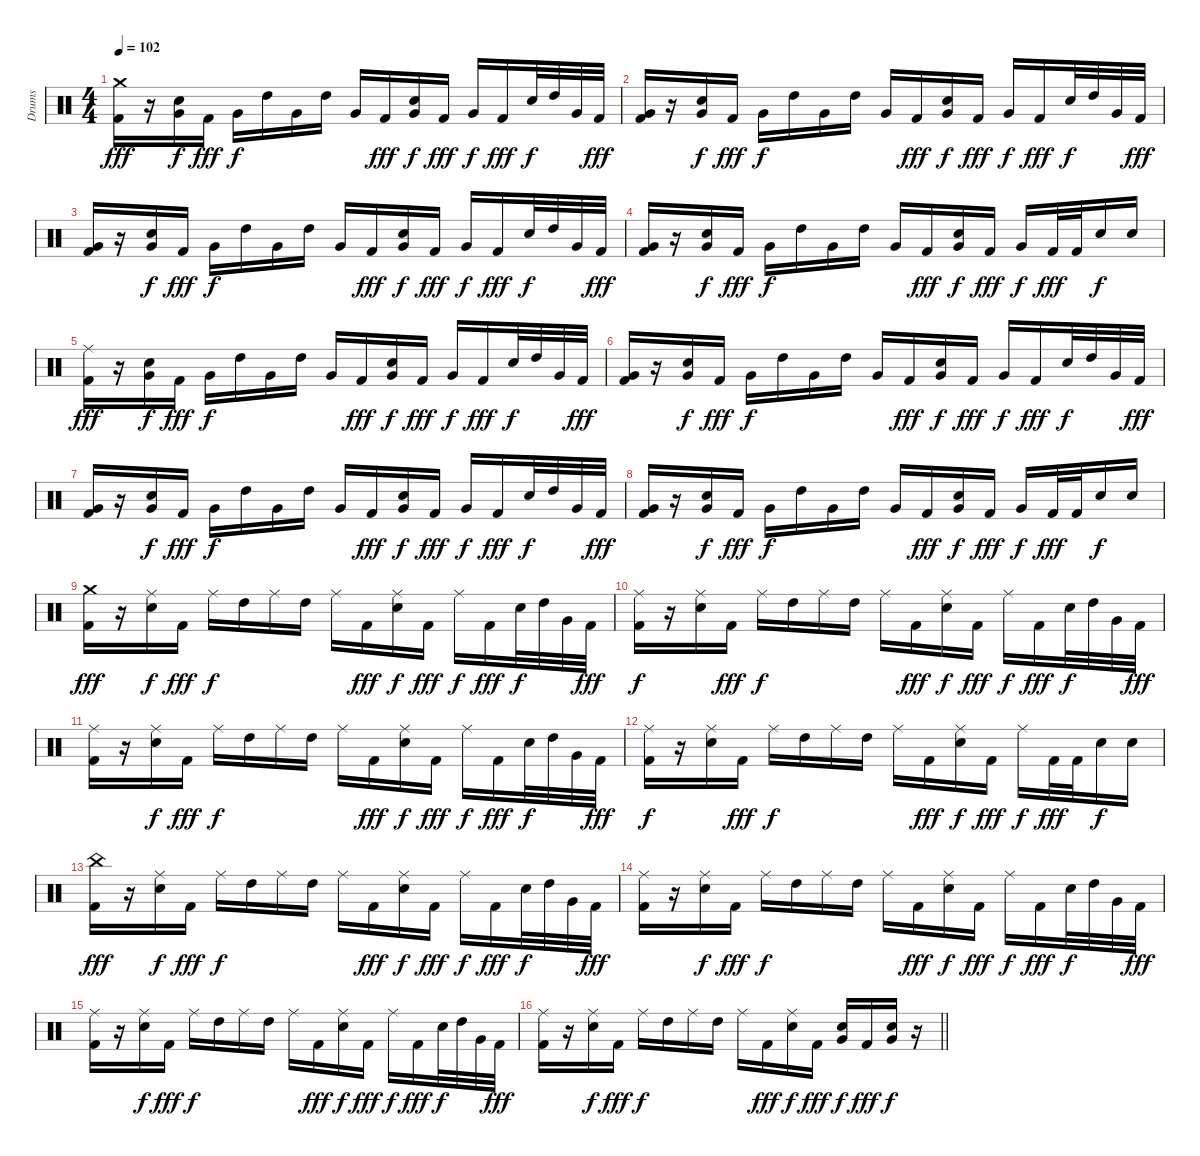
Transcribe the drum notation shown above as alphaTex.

\track ("Drums" "Drums") {instrument percussion}
\staff {score}
\articulation defaults
\ts (4 4)
\tempo 102
\clef neutral
\ks c
("Crash medium (hit)" "Kick (hit) 2").16{dy fff} r.16 ("Snare (hit) 2" "Very Low Tom (hit)").16{dy f} "Kick (hit) 2".16{dy fff} "Very Low Tom (hit)".16{dy f} "High Tom (hit)".16 "Very Low Tom (hit)".16 "High Tom (hit)".16 "Very Low Tom (hit)".16 "Kick (hit) 2".16{dy fff} ("Snare (hit) 2" "Very Low Tom (hit)").16{dy f} "Kick (hit) 2".16{dy fff} "Very Low Tom (hit)".16{dy f} "Kick (hit) 2".16{dy fff} "Snare (hit) 2".32{dy f} "High Tom (hit)".32 "Very Low Tom (hit)".32 "Kick (hit) 2".32{dy fff} |
("Very Low Tom (hit)" "Kick (hit) 2").16 r.16 ("Snare (hit) 2" "Very Low Tom (hit)").16{dy f} "Kick (hit) 2".16{dy fff} "Very Low Tom (hit)".16{dy f} "High Tom (hit)".16 "Very Low Tom (hit)".16 "High Tom (hit)".16 "Very Low Tom (hit)".16 "Kick (hit) 2".16{dy fff} ("Snare (hit) 2" "Very Low Tom (hit)").16{dy f} "Kick (hit) 2".16{dy fff} "Very Low Tom (hit)".16{dy f} "Kick (hit) 2".16{dy fff} "Snare (hit) 2".32{dy f} "High Tom (hit)".32 "Very Low Tom (hit)".32 "Kick (hit) 2".32{dy fff} |
("Very Low Tom (hit)" "Kick (hit) 2").16 r.16 ("Snare (hit) 2" "Very Low Tom (hit)").16{dy f} "Kick (hit) 2".16{dy fff} "Very Low Tom (hit)".16{dy f} "High Tom (hit)".16 "Very Low Tom (hit)".16 "High Tom (hit)".16 "Very Low Tom (hit)".16 "Kick (hit) 2".16{dy fff} ("Snare (hit) 2" "Very Low Tom (hit)").16{dy f} "Kick (hit) 2".16{dy fff} "Very Low Tom (hit)".16{dy f} "Kick (hit) 2".16{dy fff} "Snare (hit) 2".32{dy f} "High Tom (hit)".32 "Very Low Tom (hit)".32 "Kick (hit) 2".32{dy fff} |
("Very Low Tom (hit)" "Kick (hit) 2").16 r.16 ("Snare (hit) 2" "Very Low Tom (hit)").16{dy f} "Kick (hit) 2".16{dy fff} "Very Low Tom (hit)".16{dy f} "High Tom (hit)".16 "Very Low Tom (hit)".16 "High Tom (hit)".16 "Very Low Tom (hit)".16 "Kick (hit) 2".16{dy fff} ("Snare (hit) 2" "Very Low Tom (hit)").16{dy f} "Kick (hit) 2".16{dy fff} "Very Low Tom (hit)".16{dy f} "Kick (hit) 2".32{dy fff} "Kick (hit) 2".32 "Snare (hit) 2".16{dy f} "Snare (hit) 2".16 |
("Ride (middle)" "Kick (hit) 2").16{dy fff} r.16 ("Snare (hit) 2" "Very Low Tom (hit)").16{dy f} "Kick (hit) 2".16{dy fff} "Very Low Tom (hit)".16{dy f} "High Tom (hit)".16 "Very Low Tom (hit)".16 "High Tom (hit)".16 "Very Low Tom (hit)".16 "Kick (hit) 2".16{dy fff} ("Snare (hit) 2" "Very Low Tom (hit)").16{dy f} "Kick (hit) 2".16{dy fff} "Very Low Tom (hit)".16{dy f} "Kick (hit) 2".16{dy fff} "Snare (hit) 2".32{dy f} "High Tom (hit)".32 "Very Low Tom (hit)".32 "Kick (hit) 2".32{dy fff} |
("Very Low Tom (hit)" "Kick (hit) 2").16 r.16 ("Snare (hit) 2" "Very Low Tom (hit)").16{dy f} "Kick (hit) 2".16{dy fff} "Very Low Tom (hit)".16{dy f} "High Tom (hit)".16 "Very Low Tom (hit)".16 "High Tom (hit)".16 "Very Low Tom (hit)".16 "Kick (hit) 2".16{dy fff} ("Snare (hit) 2" "Very Low Tom (hit)").16{dy f} "Kick (hit) 2".16{dy fff} "Very Low Tom (hit)".16{dy f} "Kick (hit) 2".16{dy fff} "Snare (hit) 2".32{dy f} "High Tom (hit)".32 "Very Low Tom (hit)".32 "Kick (hit) 2".32{dy fff} |
("Very Low Tom (hit)" "Kick (hit) 2").16 r.16 ("Snare (hit) 2" "Very Low Tom (hit)").16{dy f} "Kick (hit) 2".16{dy fff} "Very Low Tom (hit)".16{dy f} "High Tom (hit)".16 "Very Low Tom (hit)".16 "High Tom (hit)".16 "Very Low Tom (hit)".16 "Kick (hit) 2".16{dy fff} ("Snare (hit) 2" "Very Low Tom (hit)").16{dy f} "Kick (hit) 2".16{dy fff} "Very Low Tom (hit)".16{dy f} "Kick (hit) 2".16{dy fff} "Snare (hit) 2".32{dy f} "High Tom (hit)".32 "Very Low Tom (hit)".32 "Kick (hit) 2".32{dy fff} |
("Very Low Tom (hit)" "Kick (hit) 2").16 r.16 ("Snare (hit) 2" "Very Low Tom (hit)").16{dy f} "Kick (hit) 2".16{dy fff} "Very Low Tom (hit)".16{dy f} "High Tom (hit)".16 "Very Low Tom (hit)".16 "High Tom (hit)".16 "Very Low Tom (hit)".16 "Kick (hit) 2".16{dy fff} ("Snare (hit) 2" "Very Low Tom (hit)").16{dy f} "Kick (hit) 2".16{dy fff} "Very Low Tom (hit)".16{dy f} "Kick (hit) 2".32{dy fff} "Kick (hit) 2".32 "Snare (hit) 2".16{dy f} "Snare (hit) 2".16 |
("Crash medium (hit)" "Kick (hit) 2").16{dy fff} r.16 ("Ride (middle)" "Snare (hit) 2").16{dy f} "Kick (hit) 2".16{dy fff} "Ride (middle)".16{dy f} "High Tom (hit)".16 "Ride (middle)".16 "High Tom (hit)".16 "Ride (middle)".16 "Kick (hit) 2".16{dy fff} ("Ride (middle)" "Snare (hit) 2").16{dy f} "Kick (hit) 2".16{dy fff} "Ride (middle)".16{dy f} "Kick (hit) 2".16{dy fff} "Snare (hit) 2".32{dy f} "High Tom (hit)".32 "Very Low Tom (hit)".32 "Kick (hit) 2".32{dy fff} |
("Ride (middle)" "Kick (hit) 2").16{dy f} r.16 ("Ride (middle)" "Snare (hit) 2").16 "Kick (hit) 2".16{dy fff} "Ride (middle)".16{dy f} "High Tom (hit)".16 "Ride (middle)".16 "High Tom (hit)".16 "Ride (middle)".16 "Kick (hit) 2".16{dy fff} ("Ride (middle)" "Snare (hit) 2").16{dy f} "Kick (hit) 2".16{dy fff} "Ride (middle)".16{dy f} "Kick (hit) 2".16{dy fff} "Snare (hit) 2".32{dy f} "High Tom (hit)".32 "Very Low Tom (hit)".32 "Kick (hit) 2".32{dy fff} |
("Ride (middle)" "Kick (hit) 2").16 r.16 ("Ride (middle)" "Snare (hit) 2").16{dy f} "Kick (hit) 2".16{dy fff} "Ride (middle)".16{dy f} "High Tom (hit)".16 "Ride (middle)".16 "High Tom (hit)".16 "Ride (middle)".16 "Kick (hit) 2".16{dy fff} ("Ride (middle)" "Snare (hit) 2").16{dy f} "Kick (hit) 2".16{dy fff} "Ride (middle)".16{dy f} "Kick (hit) 2".16{dy fff} "Snare (hit) 2".32{dy f} "High Tom (hit)".32 "Very Low Tom (hit)".32 "Kick (hit) 2".32{dy fff} |
("Ride (middle)" "Kick (hit) 2").16{dy f} r.16 ("Ride (middle)" "Snare (hit) 2").16 "Kick (hit) 2".16{dy fff} "Ride (middle)".16{dy f} "High Tom (hit)".16 "Ride (middle)".16 "High Tom (hit)".16 "Ride (middle)".16 "Kick (hit) 2".16{dy fff} ("Ride (middle)" "Snare (hit) 2").16{dy f} "Kick (hit) 2".16{dy fff} "Ride (middle)".16{dy f} "Kick (hit) 2".32{dy fff} "Kick (hit) 2".32 "Snare (hit) 2".16{dy f} "Snare (hit) 2".16 |
("China (hit)" "Kick (hit) 2").16{dy fff} r.16 ("Ride (middle)" "Snare (hit) 2").16{dy f} "Kick (hit) 2".16{dy fff} "Ride (middle)".16{dy f} "High Tom (hit)".16 "Ride (middle)".16 "High Tom (hit)".16 "Ride (middle)".16 "Kick (hit) 2".16{dy fff} ("Ride (middle)" "Snare (hit) 2").16{dy f} "Kick (hit) 2".16{dy fff} "Ride (middle)".16{dy f} "Kick (hit) 2".16{dy fff} "Snare (hit) 2".32{dy f} "High Tom (hit)".32 "Very Low Tom (hit)".32 "Kick (hit) 2".32{dy fff} |
("Ride (middle)" "Kick (hit) 2").16 r.16 ("Ride (middle)" "Snare (hit) 2").16{dy f} "Kick (hit) 2".16{dy fff} "Ride (middle)".16{dy f} "High Tom (hit)".16 "Ride (middle)".16 "High Tom (hit)".16 "Ride (middle)".16 "Kick (hit) 2".16{dy fff} ("Ride (middle)" "Snare (hit) 2").16{dy f} "Kick (hit) 2".16{dy fff} "Ride (middle)".16{dy f} "Kick (hit) 2".16{dy fff} "Snare (hit) 2".32{dy f} "High Tom (hit)".32 "Very Low Tom (hit)".32 "Kick (hit) 2".32{dy fff} |
("Ride (middle)" "Kick (hit) 2").16 r.16 ("Ride (middle)" "Snare (hit) 2").16{dy f} "Kick (hit) 2".16{dy fff} "Ride (middle)".16{dy f} "High Tom (hit)".16 "Ride (middle)".16 "High Tom (hit)".16 "Ride (middle)".16 "Kick (hit) 2".16{dy fff} ("Ride (middle)" "Snare (hit) 2").16{dy f} "Kick (hit) 2".16{dy fff} "Ride (middle)".16{dy f} "Kick (hit) 2".16{dy fff} "Snare (hit) 2".32{dy f} "High Tom (hit)".32 "Very Low Tom (hit)".32 "Kick (hit) 2".32{dy fff} |
\barLineRight lightlight
("Ride (middle)" "Kick (hit) 2").16 r.16 ("Ride (middle)" "Snare (hit) 2").16{dy f} "Kick (hit) 2".16{dy fff} "Ride (middle)".16{dy f} "High Tom (hit)".16 "Ride (middle)".16 "High Tom (hit)".16 "Ride (middle)".16 "Kick (hit) 2".16{dy fff} ("Ride (middle)" "Snare (hit) 2").16{dy f} "Kick (hit) 2".16{dy fff} ("Snare (hit) 2" "Very Low Tom (hit)").16{dy f} "Kick (hit) 2".16{dy fff} ("Snare (hit) 2" "Very Low Tom (hit)").16{dy f} r.16
